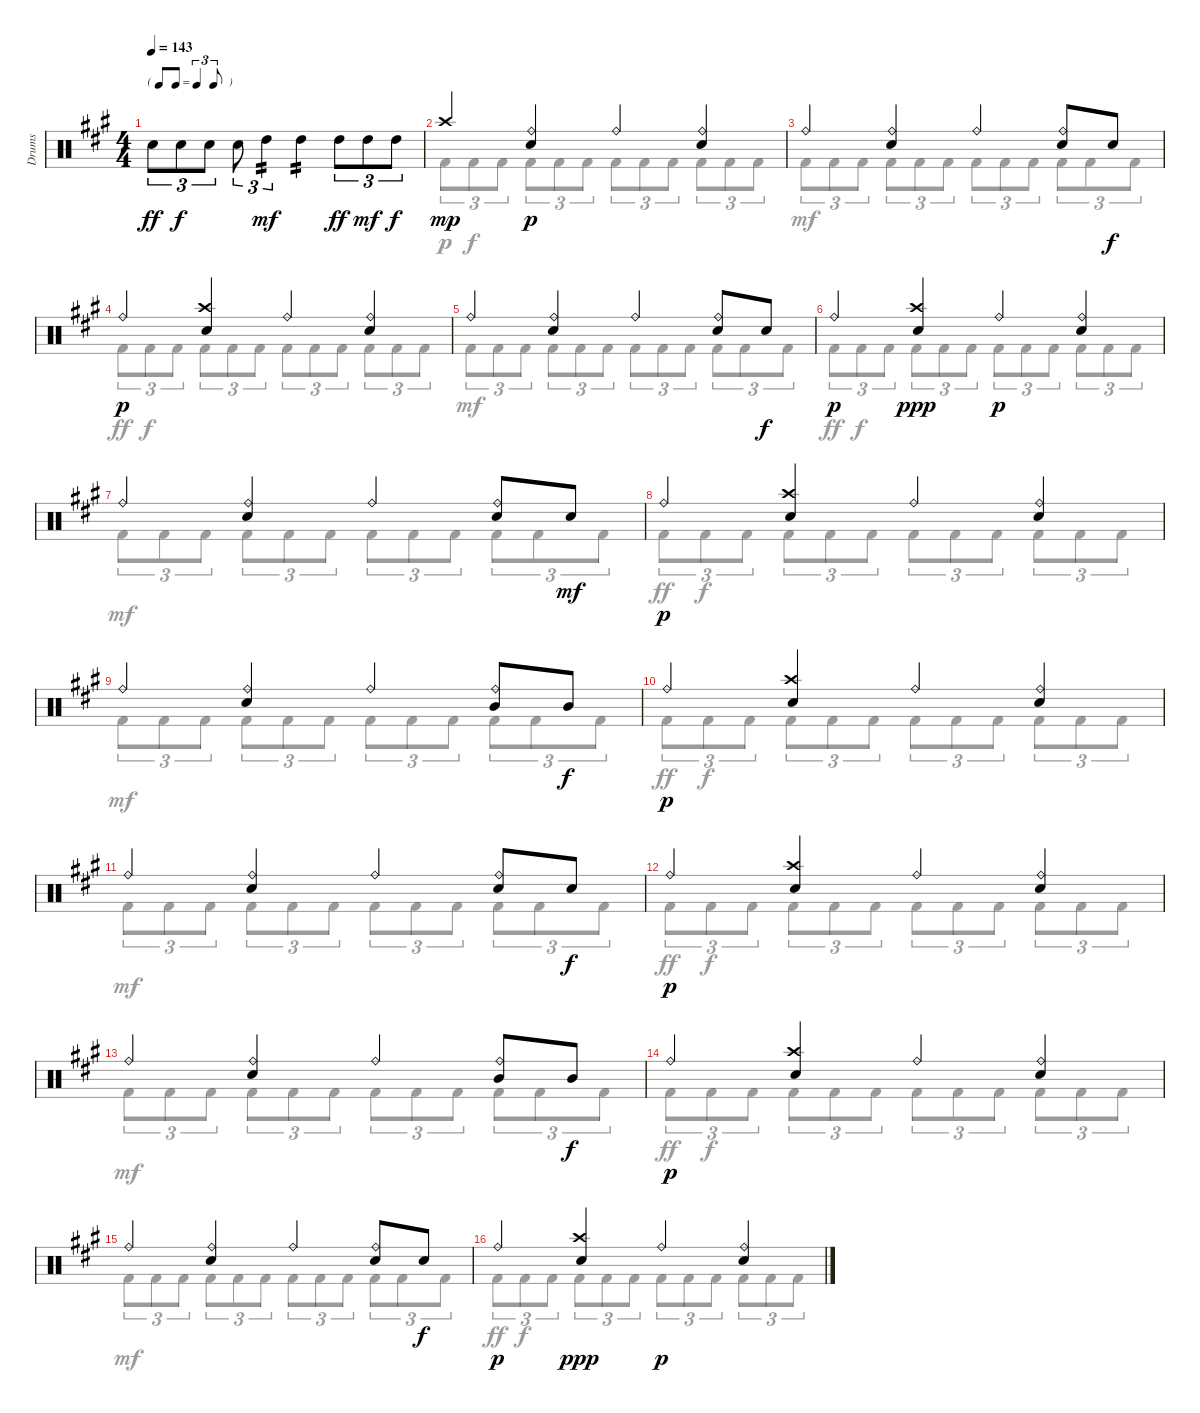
\track ("Drums" "Drums") {instrument percussion}
\staff {score}
\articulation defaults
\voice
\ts (4 4)
\tf triplet8th
\tempo 143
\clef neutral
\ks a "Electric Snare (hit)".8{tu (3 2) dy ff} "Electric Snare (hit)".8{tu (3 2) dy f} "Electric Snare (hit)".8{tu (3 2)} "Electric Snare (hit)".8{tu (3 2)} "High Tom (hit)".4{tu (3 2) tp 2 dy mf} "High Tom (hit)".4{tp 2} "High Tom (hit)".8{tu (3 2) dy ff} "High Tom (hit)".8{tu (3 2) dy mf} "High Tom (hit)".8{tu (3 2) dy f}
|
"Crash high (hit)".4{dy mp} ("Electric Snare (hit)" "Ride (bell)").4{dy p} "Ride (bell)".4 ("Ride (bell)" "Electric Snare (hit)").4 |
"Ride (bell)".4 ("Ride (bell)" "Electric Snare (hit)").4 "Ride (bell)".4 ("Ride (bell)" "Electric Snare (hit)").8 "Electric Snare (hit)".8{dy f} |
"Ride (bell)".4{dy p} ("Electric Snare (hit)" "Crash high (hit)").4 "Ride (bell)".4 ("Ride (bell)" "Electric Snare (hit)").4 |
"Ride (bell)".4 ("Ride (bell)" "Electric Snare (hit)").4 "Ride (bell)".4 ("Ride (bell)" "Electric Snare (hit)").8 "Electric Snare (hit)".8{dy f} |
"Ride (bell)".4{dy p} ("Electric Snare (hit)" "Crash high (hit)").4{dy ppp} "Ride (bell)".4{dy p} ("Ride (bell)" "Electric Snare (hit)").4 |
"Ride (bell)".4 ("Ride (bell)" "Electric Snare (hit)").4 "Ride (bell)".4 ("Ride (bell)" "Electric Snare (hit)").8 "Electric Snare (hit)".8{dy mf} |
"Ride (bell)".4{dy p} ("Electric Snare (hit)" "Crash high (hit)").4 "Ride (bell)".4 ("Ride (bell)" "Electric Snare (hit)").4 |
"Ride (bell)".4 ("Ride (bell)" "Electric Snare (hit)").4 "Ride (bell)".4 ("Ride (bell)" "Mid Tom (hit)").8 "Mid Tom (hit)".8{dy f} |
"Ride (bell)".4{dy p} ("Electric Snare (hit)" "Crash high (hit)").4 "Ride (bell)".4 ("Ride (bell)" "Electric Snare (hit)").4 |
"Ride (bell)".4 ("Ride (bell)" "Electric Snare (hit)").4 "Ride (bell)".4 ("Ride (bell)" "Electric Snare (hit)").8 "Electric Snare (hit)".8{dy f} |
"Ride (bell)".4{dy p} ("Electric Snare (hit)" "Crash high (hit)").4 "Ride (bell)".4 ("Ride (bell)" "Electric Snare (hit)").4 |
"Ride (bell)".4 ("Ride (bell)" "Electric Snare (hit)").4 "Ride (bell)".4 ("Ride (bell)" "Mid Tom (hit)").8 "Mid Tom (hit)".8{dy f} |
"Ride (bell)".4{dy p} ("Electric Snare (hit)" "Crash high (hit)").4 "Ride (bell)".4 ("Ride (bell)" "Electric Snare (hit)").4 |
"Ride (bell)".4 ("Ride (bell)" "Electric Snare (hit)").4 "Ride (bell)".4 ("Ride (bell)" "Electric Snare (hit)").8 "Electric Snare (hit)".8{dy f} |
"Ride (bell)".4{dy p} ("Electric Snare (hit)" "Crash high (hit)").4{dy ppp} "Ride (bell)".4{dy p} ("Ride (bell)" "Electric Snare (hit)").4
\voice
\clef neutral
\ottava regular
\simile none
\ks a
|
"Kick (hit) 2".8{tu (3 2)} "Kick (hit) 2".8{tu (3 2) dy f} "Kick (hit) 2".8{tu (3 2)} "Kick (hit) 2".8{tu (3 2)} "Kick (hit) 2".8{tu (3 2)} "Kick (hit) 2".8{tu (3 2)} "Kick (hit) 2".8{tu (3 2)} "Kick (hit) 2".8{tu (3 2)} "Kick (hit) 2".8{tu (3 2)} "Kick (hit) 2".8{tu (3 2)} "Kick (hit) 2".8{tu (3 2)} "Kick (hit) 2".8{tu (3 2)} |
"Kick (hit) 2".8{tu (3 2) dy mf} "Kick (hit) 2".8{tu (3 2)} "Kick (hit) 2".8{tu (3 2)} "Kick (hit) 2".8{tu (3 2)} "Kick (hit) 2".8{tu (3 2)} "Kick (hit) 2".8{tu (3 2)} "Kick (hit) 2".8{tu (3 2)} "Kick (hit) 2".8{tu (3 2)} "Kick (hit) 2".8{tu (3 2)} "Kick (hit) 2".8{tu (3 2)} "Kick (hit) 2".8{tu (3 2)} "Kick (hit) 2".8{tu (3 2)} |
"Kick (hit) 2".8{tu (3 2) dy ff} "Kick (hit) 2".8{tu (3 2) dy f} "Kick (hit) 2".8{tu (3 2)} "Kick (hit) 2".8{tu (3 2)} "Kick (hit) 2".8{tu (3 2)} "Kick (hit) 2".8{tu (3 2)} "Kick (hit) 2".8{tu (3 2)} "Kick (hit) 2".8{tu (3 2)} "Kick (hit) 2".8{tu (3 2)} "Kick (hit) 2".8{tu (3 2)} "Kick (hit) 2".8{tu (3 2)} "Kick (hit) 2".8{tu (3 2)} |
"Kick (hit) 2".8{tu (3 2) dy mf} "Kick (hit) 2".8{tu (3 2)} "Kick (hit) 2".8{tu (3 2)} "Kick (hit) 2".8{tu (3 2)} "Kick (hit) 2".8{tu (3 2)} "Kick (hit) 2".8{tu (3 2)} "Kick (hit) 2".8{tu (3 2)} "Kick (hit) 2".8{tu (3 2)} "Kick (hit) 2".8{tu (3 2)} "Kick (hit) 2".8{tu (3 2)} "Kick (hit) 2".8{tu (3 2)} "Kick (hit) 2".8{tu (3 2)} |
"Kick (hit) 2".8{tu (3 2) dy ff} "Kick (hit) 2".8{tu (3 2) dy f} "Kick (hit) 2".8{tu (3 2)} "Kick (hit) 2".8{tu (3 2)} "Kick (hit) 2".8{tu (3 2)} "Kick (hit) 2".8{tu (3 2)} "Kick (hit) 2".8{tu (3 2)} "Kick (hit) 2".8{tu (3 2)} "Kick (hit) 2".8{tu (3 2)} "Kick (hit) 2".8{tu (3 2)} "Kick (hit) 2".8{tu (3 2)} "Kick (hit) 2".8{tu (3 2)} |
"Kick (hit) 2".8{tu (3 2) dy mf} "Kick (hit) 2".8{tu (3 2)} "Kick (hit) 2".8{tu (3 2)} "Kick (hit) 2".8{tu (3 2)} "Kick (hit) 2".8{tu (3 2)} "Kick (hit) 2".8{tu (3 2)} "Kick (hit) 2".8{tu (3 2)} "Kick (hit) 2".8{tu (3 2)} "Kick (hit) 2".8{tu (3 2)} "Kick (hit) 2".8{tu (3 2)} "Kick (hit) 2".8{tu (3 2)} "Kick (hit) 2".8{tu (3 2)} |
"Kick (hit) 2".8{tu (3 2) dy ff} "Kick (hit) 2".8{tu (3 2) dy f} "Kick (hit) 2".8{tu (3 2)} "Kick (hit) 2".8{tu (3 2)} "Kick (hit) 2".8{tu (3 2)} "Kick (hit) 2".8{tu (3 2)} "Kick (hit) 2".8{tu (3 2)} "Kick (hit) 2".8{tu (3 2)} "Kick (hit) 2".8{tu (3 2)} "Kick (hit) 2".8{tu (3 2)} "Kick (hit) 2".8{tu (3 2)} "Kick (hit) 2".8{tu (3 2)} |
"Kick (hit) 2".8{tu (3 2) dy mf} "Kick (hit) 2".8{tu (3 2)} "Kick (hit) 2".8{tu (3 2)} "Kick (hit) 2".8{tu (3 2)} "Kick (hit) 2".8{tu (3 2)} "Kick (hit) 2".8{tu (3 2)} "Kick (hit) 2".8{tu (3 2)} "Kick (hit) 2".8{tu (3 2)} "Kick (hit) 2".8{tu (3 2)} "Kick (hit) 2".8{tu (3 2)} "Kick (hit) 2".8{tu (3 2)} "Kick (hit) 2".8{tu (3 2)} |
"Kick (hit) 2".8{tu (3 2) dy ff} "Kick (hit) 2".8{tu (3 2) dy f} "Kick (hit) 2".8{tu (3 2)} "Kick (hit) 2".8{tu (3 2)} "Kick (hit) 2".8{tu (3 2)} "Kick (hit) 2".8{tu (3 2)} "Kick (hit) 2".8{tu (3 2)} "Kick (hit) 2".8{tu (3 2)} "Kick (hit) 2".8{tu (3 2)} "Kick (hit) 2".8{tu (3 2)} "Kick (hit) 2".8{tu (3 2)} "Kick (hit) 2".8{tu (3 2)} |
"Kick (hit) 2".8{tu (3 2) dy mf} "Kick (hit) 2".8{tu (3 2)} "Kick (hit) 2".8{tu (3 2)} "Kick (hit) 2".8{tu (3 2)} "Kick (hit) 2".8{tu (3 2)} "Kick (hit) 2".8{tu (3 2)} "Kick (hit) 2".8{tu (3 2)} "Kick (hit) 2".8{tu (3 2)} "Kick (hit) 2".8{tu (3 2)} "Kick (hit) 2".8{tu (3 2)} "Kick (hit) 2".8{tu (3 2)} "Kick (hit) 2".8{tu (3 2)} |
"Kick (hit) 2".8{tu (3 2) dy ff} "Kick (hit) 2".8{tu (3 2) dy f} "Kick (hit) 2".8{tu (3 2)} "Kick (hit) 2".8{tu (3 2)} "Kick (hit) 2".8{tu (3 2)} "Kick (hit) 2".8{tu (3 2)} "Kick (hit) 2".8{tu (3 2)} "Kick (hit) 2".8{tu (3 2)} "Kick (hit) 2".8{tu (3 2)} "Kick (hit) 2".8{tu (3 2)} "Kick (hit) 2".8{tu (3 2)} "Kick (hit) 2".8{tu (3 2)} |
"Kick (hit) 2".8{tu (3 2) dy mf} "Kick (hit) 2".8{tu (3 2)} "Kick (hit) 2".8{tu (3 2)} "Kick (hit) 2".8{tu (3 2)} "Kick (hit) 2".8{tu (3 2)} "Kick (hit) 2".8{tu (3 2)} "Kick (hit) 2".8{tu (3 2)} "Kick (hit) 2".8{tu (3 2)} "Kick (hit) 2".8{tu (3 2)} "Kick (hit) 2".8{tu (3 2)} "Kick (hit) 2".8{tu (3 2)} "Kick (hit) 2".8{tu (3 2)} |
"Kick (hit) 2".8{tu (3 2) dy ff} "Kick (hit) 2".8{tu (3 2) dy f} "Kick (hit) 2".8{tu (3 2)} "Kick (hit) 2".8{tu (3 2)} "Kick (hit) 2".8{tu (3 2)} "Kick (hit) 2".8{tu (3 2)} "Kick (hit) 2".8{tu (3 2)} "Kick (hit) 2".8{tu (3 2)} "Kick (hit) 2".8{tu (3 2)} "Kick (hit) 2".8{tu (3 2)} "Kick (hit) 2".8{tu (3 2)} "Kick (hit) 2".8{tu (3 2)} |
"Kick (hit) 2".8{tu (3 2) dy mf} "Kick (hit) 2".8{tu (3 2)} "Kick (hit) 2".8{tu (3 2)} "Kick (hit) 2".8{tu (3 2)} "Kick (hit) 2".8{tu (3 2)} "Kick (hit) 2".8{tu (3 2)} "Kick (hit) 2".8{tu (3 2)} "Kick (hit) 2".8{tu (3 2)} "Kick (hit) 2".8{tu (3 2)} "Kick (hit) 2".8{tu (3 2)} "Kick (hit) 2".8{tu (3 2)} "Kick (hit) 2".8{tu (3 2)} |
"Kick (hit) 2".8{tu (3 2) dy ff} "Kick (hit) 2".8{tu (3 2) dy f} "Kick (hit) 2".8{tu (3 2)} "Kick (hit) 2".8{tu (3 2)} "Kick (hit) 2".8{tu (3 2)} "Kick (hit) 2".8{tu (3 2)} "Kick (hit) 2".8{tu (3 2)} "Kick (hit) 2".8{tu (3 2)} "Kick (hit) 2".8{tu (3 2)} "Kick (hit) 2".8{tu (3 2)} "Kick (hit) 2".8{tu (3 2)} "Kick (hit) 2".8{tu (3 2)}
